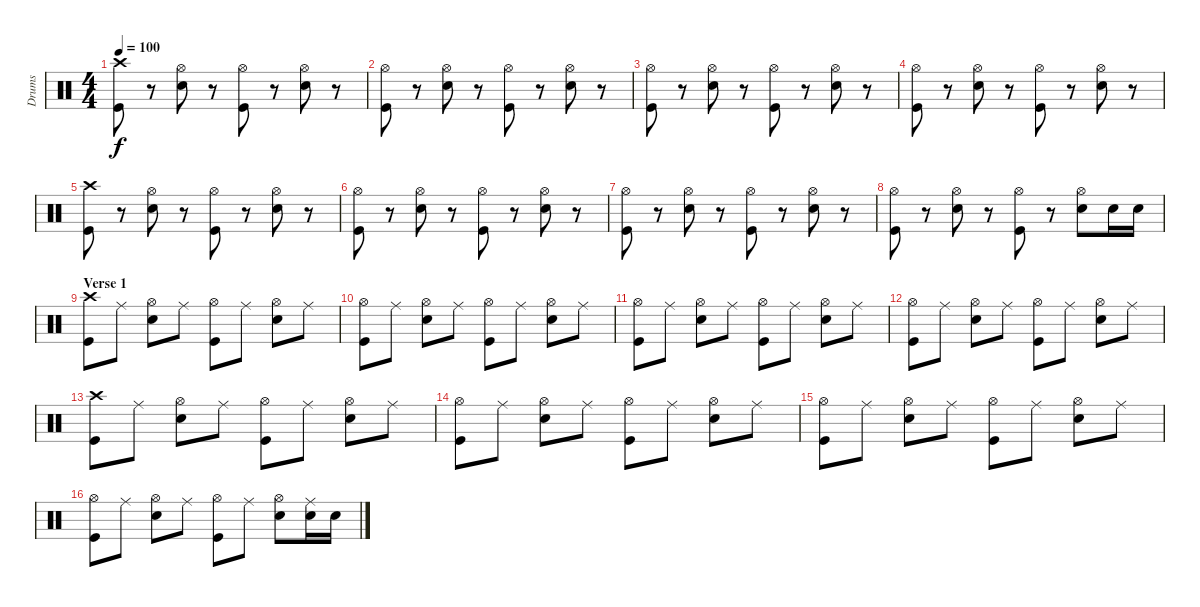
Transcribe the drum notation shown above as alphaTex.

\track ("Drums" "Drums") {instrument percussion}
\staff {score}
\articulation defaults
\ts (4 4)
\tempo 100
\clef neutral
\ks c
("Crash high (hit)" "Kick (hit)").8{dy f} r.8 ("Hi-Hat (open)" "Electric Snare (hit)").8 r.8 ("Hi-Hat (open)" "Kick (hit)").8 r.8 ("Hi-Hat (open)" "Electric Snare (hit)").8 r.8 |
("Hi-Hat (open)" "Kick (hit)").8 r.8 ("Hi-Hat (open)" "Electric Snare (hit)").8 r.8 ("Hi-Hat (open)" "Kick (hit)").8 r.8 ("Hi-Hat (open)" "Electric Snare (hit)").8 r.8 |
("Hi-Hat (open)" "Kick (hit)").8 r.8 ("Hi-Hat (open)" "Electric Snare (hit)").8 r.8 ("Hi-Hat (open)" "Kick (hit)").8 r.8 ("Hi-Hat (open)" "Electric Snare (hit)").8 r.8 |
("Hi-Hat (open)" "Kick (hit)").8 r.8 ("Hi-Hat (open)" "Electric Snare (hit)").8 r.8 ("Hi-Hat (open)" "Kick (hit)").8 r.8 ("Hi-Hat (open)" "Electric Snare (hit)").8 r.8 |
("Crash high (hit)" "Kick (hit)").8 r.8 ("Hi-Hat (open)" "Electric Snare (hit)").8 r.8 ("Hi-Hat (open)" "Kick (hit)").8 r.8 ("Hi-Hat (open)" "Electric Snare (hit)").8 r.8 |
("Hi-Hat (open)" "Kick (hit)").8 r.8 ("Hi-Hat (open)" "Electric Snare (hit)").8 r.8 ("Hi-Hat (open)" "Kick (hit)").8 r.8 ("Hi-Hat (open)" "Electric Snare (hit)").8 r.8 |
("Hi-Hat (open)" "Kick (hit)").8 r.8 ("Hi-Hat (open)" "Electric Snare (hit)").8 r.8 ("Hi-Hat (open)" "Kick (hit)").8 r.8 ("Hi-Hat (open)" "Electric Snare (hit)").8 r.8 |
("Hi-Hat (open)" "Kick (hit)").8 r.8 ("Hi-Hat (open)" "Electric Snare (hit)").8 r.8 ("Hi-Hat (open)" "Kick (hit)").8 r.8 ("Hi-Hat (open)" "Electric Snare (hit)").8 "Electric Snare (hit)".16 "Electric Snare (hit)".16 |
\section ("" "Verse 1")
("Crash high (hit)" "Kick (hit)").8 "Ride (middle)".8 ("Hi-Hat (open)" "Electric Snare (hit)").8 "Ride (middle)".8 ("Hi-Hat (open)" "Kick (hit)").8 "Ride (middle)".8 ("Hi-Hat (open)" "Electric Snare (hit)").8 "Ride (middle)".8 |
("Hi-Hat (open)" "Kick (hit)").8 "Ride (middle)".8 ("Hi-Hat (open)" "Electric Snare (hit)").8 "Ride (middle)".8 ("Hi-Hat (open)" "Kick (hit)").8 "Ride (middle)".8 ("Hi-Hat (open)" "Electric Snare (hit)").8 "Ride (middle)".8 |
("Hi-Hat (open)" "Kick (hit)").8 "Ride (middle)".8 ("Hi-Hat (open)" "Electric Snare (hit)").8 "Ride (middle)".8 ("Hi-Hat (open)" "Kick (hit)").8 "Ride (middle)".8 ("Hi-Hat (open)" "Electric Snare (hit)").8 "Ride (middle)".8 |
("Hi-Hat (open)" "Kick (hit)").8 "Ride (middle)".8 ("Hi-Hat (open)" "Electric Snare (hit)").8 "Ride (middle)".8 ("Hi-Hat (open)" "Kick (hit)").8 "Ride (middle)".8 ("Hi-Hat (open)" "Electric Snare (hit)").8 "Ride (middle)".8 |
("Crash high (hit)" "Kick (hit)").8 "Ride (middle)".8 ("Hi-Hat (open)" "Electric Snare (hit)").8 "Ride (middle)".8 ("Hi-Hat (open)" "Kick (hit)").8 "Ride (middle)".8 ("Hi-Hat (open)" "Electric Snare (hit)").8 "Ride (middle)".8 |
("Hi-Hat (open)" "Kick (hit)").8 "Ride (middle)".8 ("Hi-Hat (open)" "Electric Snare (hit)").8 "Ride (middle)".8 ("Hi-Hat (open)" "Kick (hit)").8 "Ride (middle)".8 ("Hi-Hat (open)" "Electric Snare (hit)").8 "Ride (middle)".8 |
("Hi-Hat (open)" "Kick (hit)").8 "Ride (middle)".8 ("Hi-Hat (open)" "Electric Snare (hit)").8 "Ride (middle)".8 ("Hi-Hat (open)" "Kick (hit)").8 "Ride (middle)".8 ("Hi-Hat (open)" "Electric Snare (hit)").8 "Ride (middle)".8 |
("Hi-Hat (open)" "Kick (hit)").8 "Ride (middle)".8 ("Hi-Hat (open)" "Electric Snare (hit)").8 "Ride (middle)".8 ("Hi-Hat (open)" "Kick (hit)").8 "Ride (middle)".8 ("Hi-Hat (open)" "Electric Snare (hit)").8 ("Ride (middle)" "Electric Snare (hit)").16 "Electric Snare (hit)".16
